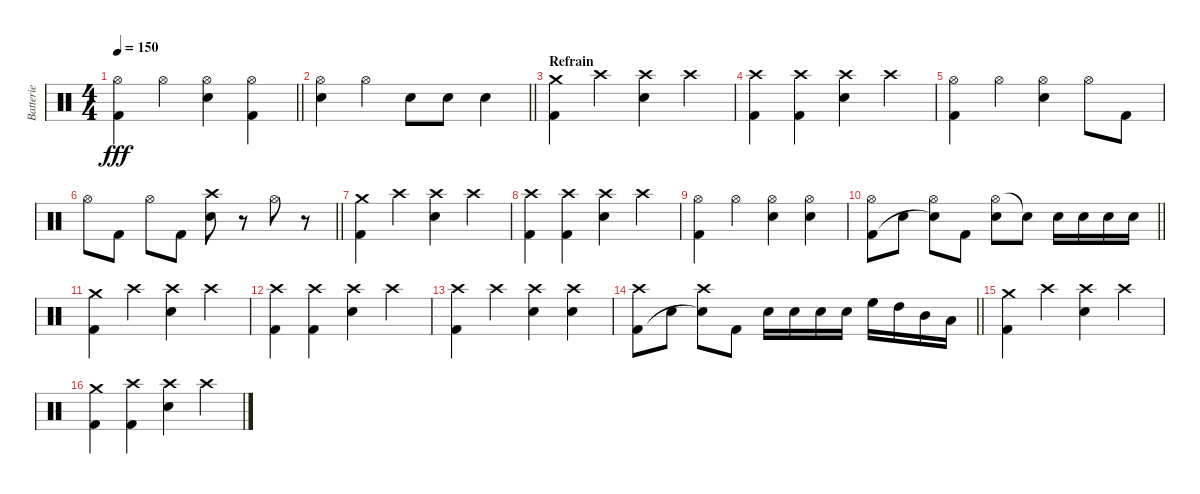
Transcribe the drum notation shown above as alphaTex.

\track ("Batterie" "Batterie") {instrument percussion}
\staff {score}
\articulation defaults
\ts (4 4)
\tempo 150
\clef neutral
\barLineRight lightlight
\ks c
("Hi-Hat (open)" "Kick (hit) 2").4{dy fff} "Hi-Hat (open)".4 ("Hi-Hat (open)" "Electric Snare (hit)").4 ("Hi-Hat (open)" "Kick (hit) 2").4 |
\barLineRight lightlight
("Hi-Hat (open)" "Electric Snare (hit)").4 "Hi-Hat (open)".4 "Electric Snare (hit)".8 "Electric Snare (hit)".8 "Electric Snare (hit)".4 |
\section ("" "Refrain")
("Crash medium (hit)" "Kick (hit) 2").4 "Crash high (hit)".4 ("Crash high (hit)" "Electric Snare (hit)").4 "Crash high (hit)".4 |
("Crash high (hit)" "Kick (hit) 2").4 ("Crash high (hit)" "Kick (hit) 2").4 ("Crash high (hit)" "Electric Snare (hit)").4 "Crash high (hit)".4 |
("Hi-Hat (open)" "Kick (hit) 2").4 "Hi-Hat (open)".4 ("Hi-Hat (open)" "Electric Snare (hit)").4 "Hi-Hat (open)".8 "Kick (hit) 2".8 |
\barLineRight lightlight "Hi-Hat (open)".8 "Kick (hit) 2".8 "Hi-Hat (open)".8 "Kick (hit) 2".8
("Crash high (hit)" "Electric Snare (hit)").8 r.8 "Hi-Hat (open)".8 r.8 |
("Crash medium (hit)" "Kick (hit) 2").4 "Crash high (hit)".4 ("Crash high (hit)" "Electric Snare (hit)").4 "Crash high (hit)".4 |
("Crash high (hit)" "Kick (hit) 2").4 ("Crash high (hit)" "Kick (hit) 2").4 ("Crash high (hit)" "Electric Snare (hit)").4 "Crash high (hit)".4 |
("Hi-Hat (open)" "Kick (hit) 2").4 "Hi-Hat (open)".4 ("Hi-Hat (open)" "Electric Snare (hit)").4 ("Hi-Hat (open)" "Electric Snare (hit)").4 |
\barLineRight lightlight
("Hi-Hat (open)" "Kick (hit) 2").8 "Electric Snare (hit)".8 ("Hi-Hat (open)" "Electric Snare (hit)"{t}).8 "Kick (hit) 2".8 ("Hi-Hat (open)" "Electric Snare (hit)").8 "Electric Snare (hit)"{t}.8 "Electric Snare (hit)".16 "Electric Snare (hit)".16 "Electric Snare (hit)".16 "Electric Snare (hit)".16 |
("Crash medium (hit)" "Kick (hit) 2").4 "Crash high (hit)".4 ("Crash high (hit)" "Electric Snare (hit)").4 "Crash high (hit)".4 |
("Crash high (hit)" "Kick (hit) 2").4 ("Crash high (hit)" "Kick (hit) 2").4 ("Crash high (hit)" "Electric Snare (hit)").4 "Crash high (hit)".4 |
("Crash high (hit)" "Kick (hit) 2").4 "Crash high (hit)".4 ("Crash high (hit)" "Electric Snare (hit)").4 ("Crash high (hit)" "Electric Snare (hit)").4 |
\barLineRight lightlight
("Crash high (hit)" "Kick (hit) 2").8 "Electric Snare (hit)".8 ("Crash high (hit)" "Snare (hit)"{t}).8 "Kick (hit) 2".8 "Electric Snare (hit)".16 "Electric Snare (hit)".16 "Electric Snare (hit)".16 "Electric Snare (hit)".16 "High Floor Tom (hit)".16 "High Tom (hit)".16 "Mid Tom (hit)".16 "Low Tom (hit)".16 |
("Crash medium (hit)" "Kick (hit) 2").4 "Crash high (hit)".4 ("Crash high (hit)" "Electric Snare (hit)").4 "Crash high (hit)".4 |
("Crash medium (hit)" "Kick (hit) 2").4 ("Crash high (hit)" "Kick (hit) 2").4 ("Crash high (hit)" "Electric Snare (hit)").4 "Crash high (hit)".4
